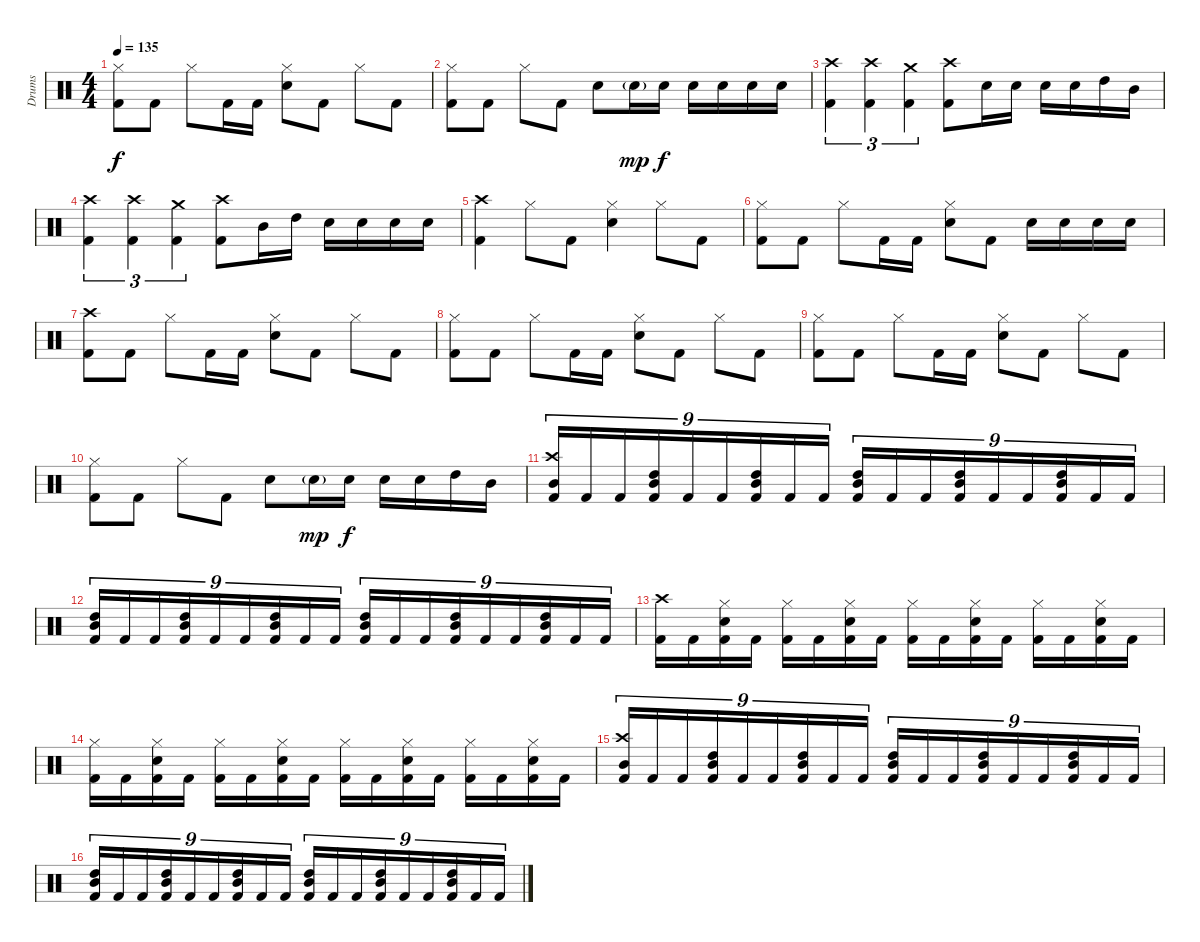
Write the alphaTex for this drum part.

\track ("Drums" "Drums") {instrument percussion}
\staff {score}
\articulation defaults
\ts (4 4)
\tempo 135
\clef neutral
\ks c
("Hi-Hat (closed)" "Kick (hit) 2").8{dy f} "Kick (hit) 2".8 "Hi-Hat (closed)".8 "Kick (hit) 2".16 "Kick (hit) 2".16 ("Hi-Hat (closed)" "Snare (hit) 2").8 "Kick (hit) 2".8 "Hi-Hat (closed)".8 "Kick (hit) 2".8 |
("Hi-Hat (closed)" "Kick (hit) 2").8 "Kick (hit) 2".8 "Hi-Hat (closed)".8 "Kick (hit) 2".8 "Snare (hit) 2".8 "Snare (hit) 2"{g}.16{dy mp} "Snare (hit) 2".16{dy f} "Snare (hit) 2".16 "Snare (hit) 2".16 "Snare (hit) 2".16 "Snare (hit) 2".16 |
("Crash high (hit)" "Kick (hit) 2").4{tu (3 2)} ("Crash high (hit)" "Kick (hit) 2").4{tu (3 2)} ("Crash medium (hit)" "Kick (hit) 2").4{tu (3 2)} ("Crash high (hit)" "Kick (hit) 2").8 "Snare (hit) 2".16 "Snare (hit) 2".16 "Snare (hit) 2".16 "Snare (hit) 2".16 "High Tom (hit)".16 "Mid Tom (hit)".16 |
("Crash high (hit)" "Kick (hit) 2").4{tu (3 2)} ("Crash high (hit)" "Kick (hit) 2").4{tu (3 2)} ("Crash medium (hit)" "Kick (hit) 2").4{tu (3 2)} ("Crash high (hit)" "Kick (hit) 2").8 "Mid Tom (hit)".16 "High Tom (hit)".16 "Snare (hit) 2".16 "Snare (hit) 2".16 "Snare (hit) 2".16 "Snare (hit) 2".16 |
("Crash high (hit)" "Kick (hit) 2").4 "Hi-Hat (closed)".8 "Kick (hit) 2".8 ("Hi-Hat (closed)" "Snare (hit) 2").4 "Hi-Hat (closed)".8 "Kick (hit) 2".8 |
("Hi-Hat (closed)" "Kick (hit) 2").8 "Kick (hit) 2".8 "Hi-Hat (closed)".8 "Kick (hit) 2".16 "Kick (hit) 2".16 ("Hi-Hat (closed)" "Snare (hit) 2").8 "Kick (hit) 2".8 "Snare (hit) 2".16 "Snare (hit) 2".16 "Snare (hit) 2".16 "Snare (hit) 2".16 |
("Crash high (hit)" "Kick (hit) 2").8 "Kick (hit) 2".8 "Hi-Hat (closed)".8 "Kick (hit) 2".16 "Kick (hit) 2".16 ("Hi-Hat (closed)" "Snare (hit) 2").8 "Kick (hit) 2".8 "Hi-Hat (closed)".8 "Kick (hit) 2".8 |
("Hi-Hat (closed)" "Kick (hit) 2").8 "Kick (hit) 2".8 "Hi-Hat (closed)".8 "Kick (hit) 2".16 "Kick (hit) 2".16 ("Hi-Hat (closed)" "Snare (hit) 2").8 "Kick (hit) 2".8 "Hi-Hat (closed)".8 "Kick (hit) 2".8 |
("Hi-Hat (closed)" "Kick (hit) 2").8 "Kick (hit) 2".8 "Hi-Hat (closed)".8 "Kick (hit) 2".16 "Kick (hit) 2".16 ("Hi-Hat (closed)" "Snare (hit) 2").8 "Kick (hit) 2".8 "Hi-Hat (closed)".8 "Kick (hit) 2".8 |
("Hi-Hat (closed)" "Kick (hit) 2").8 "Kick (hit) 2".8 "Hi-Hat (closed)".8 "Kick (hit) 2".8 "Snare (hit) 2".8 "Snare (hit) 2"{g}.16{dy mp} "Snare (hit) 2".16{dy f} "Snare (hit) 2".16 "Snare (hit) 2".16 "High Tom (hit)".16 "Mid Tom (hit)".16 |
("Crash high (hit)" "Mid Tom (hit)" "Kick (hit) 2").16{tu (9 8)} "Kick (hit) 2".16{tu (9 8)} "Kick (hit) 2".16{tu (9 8)} ("High Tom (hit)" "Mid Tom (hit)" "Kick (hit) 2").16{tu (9 8)} "Kick (hit) 2".16{tu (9 8)} "Kick (hit) 2".16{tu (9 8)} ("High Tom (hit)" "Mid Tom (hit)" "Kick (hit) 2").16{tu (9 8)} "Kick (hit) 2".16{tu (9 8)} "Kick (hit) 2".16{tu (9 8)} ("High Tom (hit)" "Mid Tom (hit)" "Kick (hit) 2").16{tu (9 8)} "Kick (hit) 2".16{tu (9 8)} "Kick (hit) 2".16{tu (9 8)} ("High Tom (hit)" "Mid Tom (hit)" "Kick (hit) 2").16{tu (9 8)} "Kick (hit) 2".16{tu (9 8)} "Kick (hit) 2".16{tu (9 8)} ("High Tom (hit)" "Mid Tom (hit)" "Kick (hit) 2").16{tu (9 8)} "Kick (hit) 2".16{tu (9 8)} "Kick (hit) 2".16{tu (9 8)} |
("High Tom (hit)" "Mid Tom (hit)" "Kick (hit) 2").16{tu (9 8)} "Kick (hit) 2".16{tu (9 8)} "Kick (hit) 2".16{tu (9 8)} ("High Tom (hit)" "Mid Tom (hit)" "Kick (hit) 2").16{tu (9 8)} "Kick (hit) 2".16{tu (9 8)} "Kick (hit) 2".16{tu (9 8)} ("High Tom (hit)" "Mid Tom (hit)" "Kick (hit) 2").16{tu (9 8)} "Kick (hit) 2".16{tu (9 8)} "Kick (hit) 2".16{tu (9 8)} ("High Tom (hit)" "Mid Tom (hit)" "Kick (hit) 2").16{tu (9 8)} "Kick (hit) 2".16{tu (9 8)} "Kick (hit) 2".16{tu (9 8)} ("High Tom (hit)" "Mid Tom (hit)" "Kick (hit) 2").16{tu (9 8)} "Kick (hit) 2".16{tu (9 8)} "Kick (hit) 2".16{tu (9 8)} ("High Tom (hit)" "Mid Tom (hit)" "Kick (hit) 2").16{tu (9 8)} "Kick (hit) 2".16{tu (9 8)} "Kick (hit) 2".16{tu (9 8)} |
("Crash high (hit)" "Kick (hit) 2").16 "Kick (hit) 2".16 ("Hi-Hat (closed)" "Snare (hit) 2" "Kick (hit) 2").16 "Kick (hit) 2".16 ("Hi-Hat (closed)" "Kick (hit) 2").16 "Kick (hit) 2".16 ("Hi-Hat (closed)" "Snare (hit) 2" "Kick (hit) 2").16 "Kick (hit) 2".16 ("Hi-Hat (closed)" "Kick (hit) 2").16 "Kick (hit) 2".16 ("Hi-Hat (closed)" "Snare (hit) 2" "Kick (hit) 2").16 "Kick (hit) 2".16 ("Hi-Hat (closed)" "Kick (hit) 2").16 "Kick (hit) 2".16 ("Hi-Hat (closed)" "Snare (hit) 2" "Kick (hit) 2").16 "Kick (hit) 2".16 |
("Hi-Hat (closed)" "Kick (hit) 2").16 "Kick (hit) 2".16 ("Hi-Hat (closed)" "Snare (hit) 2" "Kick (hit) 2").16 "Kick (hit) 2".16 ("Hi-Hat (closed)" "Kick (hit) 2").16 "Kick (hit) 2".16 ("Hi-Hat (closed)" "Snare (hit) 2" "Kick (hit) 2").16 "Kick (hit) 2".16 ("Hi-Hat (closed)" "Kick (hit) 2").16 "Kick (hit) 2".16 ("Hi-Hat (closed)" "Snare (hit) 2" "Kick (hit) 2").16 "Kick (hit) 2".16 ("Hi-Hat (closed)" "Kick (hit) 2").16 "Kick (hit) 2".16 ("Hi-Hat (closed)" "Snare (hit) 2" "Kick (hit) 2").16 "Kick (hit) 2".16 |
("Crash high (hit)" "Mid Tom (hit)" "Kick (hit) 2").16{tu (9 8)} "Kick (hit) 2".16{tu (9 8)} "Kick (hit) 2".16{tu (9 8)} ("High Tom (hit)" "Mid Tom (hit)" "Kick (hit) 2").16{tu (9 8)} "Kick (hit) 2".16{tu (9 8)} "Kick (hit) 2".16{tu (9 8)} ("High Tom (hit)" "Mid Tom (hit)" "Kick (hit) 2").16{tu (9 8)} "Kick (hit) 2".16{tu (9 8)} "Kick (hit) 2".16{tu (9 8)} ("High Tom (hit)" "Mid Tom (hit)" "Kick (hit) 2").16{tu (9 8)} "Kick (hit) 2".16{tu (9 8)} "Kick (hit) 2".16{tu (9 8)} ("High Tom (hit)" "Mid Tom (hit)" "Kick (hit) 2").16{tu (9 8)} "Kick (hit) 2".16{tu (9 8)} "Kick (hit) 2".16{tu (9 8)} ("High Tom (hit)" "Mid Tom (hit)" "Kick (hit) 2").16{tu (9 8)} "Kick (hit) 2".16{tu (9 8)} "Kick (hit) 2".16{tu (9 8)} |
("High Tom (hit)" "Mid Tom (hit)" "Kick (hit) 2").16{tu (9 8)} "Kick (hit) 2".16{tu (9 8)} "Kick (hit) 2".16{tu (9 8)} ("High Tom (hit)" "Mid Tom (hit)" "Kick (hit) 2").16{tu (9 8)} "Kick (hit) 2".16{tu (9 8)} "Kick (hit) 2".16{tu (9 8)} ("High Tom (hit)" "Mid Tom (hit)" "Kick (hit) 2").16{tu (9 8)} "Kick (hit) 2".16{tu (9 8)} "Kick (hit) 2".16{tu (9 8)} ("High Tom (hit)" "Mid Tom (hit)" "Kick (hit) 2").16{tu (9 8)} "Kick (hit) 2".16{tu (9 8)} "Kick (hit) 2".16{tu (9 8)} ("High Tom (hit)" "Mid Tom (hit)" "Kick (hit) 2").16{tu (9 8)} "Kick (hit) 2".16{tu (9 8)} "Kick (hit) 2".16{tu (9 8)} ("High Tom (hit)" "Mid Tom (hit)" "Kick (hit) 2").16{tu (9 8)} "Kick (hit) 2".16{tu (9 8)} "Kick (hit) 2".16{tu (9 8)}
